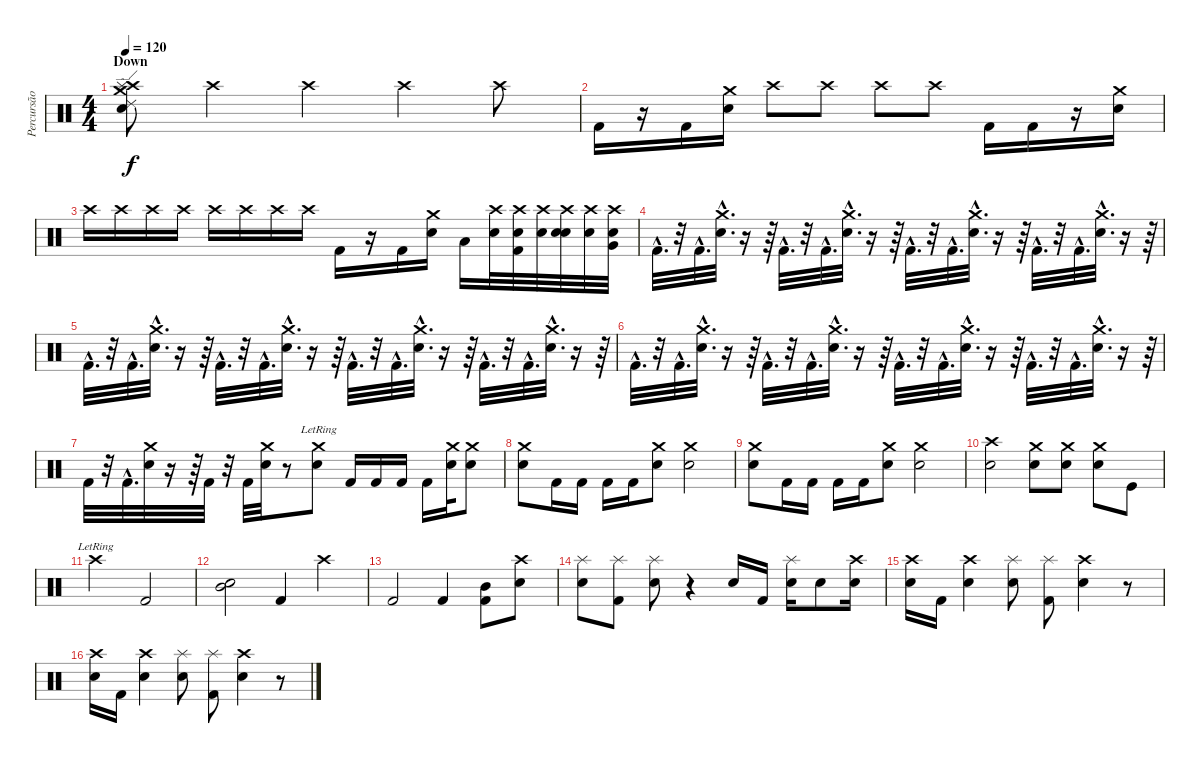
\track ("Percursão" "Percursão") {instrument percussion}
\staff {score}
\articulation defaults
\ts (4 4)
\section ("" "Down")
\tempo 120
\clef neutral
\ks c
("Crash high (hit)" "Crash medium (hit)" "Snare (hit) 2" "Ride (edge) 2" "Splash (hit)").8{dy f} "Crash high (hit)".4 "Crash high (hit)".4 "Crash high (hit)".4 "Crash high (hit)".8 |
"Kick (hit) 2".16 r.16 "Kick (hit) 2".16 ("Snare (hit) 2" "Crash medium (hit)").16 "Crash high (hit)".8 "Crash high (hit)".8 "Crash high (hit)".8 "Crash high (hit)".8 "Kick (hit) 2".16 "Kick (hit) 2".16 r.16 ("Snare (hit) 2" "Crash medium (hit)").16 |
"Crash high (hit)".16 "Crash high (hit)".16 "Crash high (hit)".16 "Crash high (hit)".16 "Crash high (hit)".16 "Crash high (hit)".16 "Crash high (hit)".16 "Crash high (hit)".16 "Kick (hit) 2".16 r.16 "Kick (hit) 2".16 ("Snare (hit) 2" "Crash medium (hit)").16 "Low Floor Tom (hit)".16 ("Snare (hit) 2" "Crash high (hit)").32 ("Kick (hit) 2" "Snare (hit) 2" "Crash high (hit)").32 ("Snare (hit) 2" "Crash high (hit)").32 ("Metronome (bell)" "Snare (hit) 2" "Crash high (hit)").32 ("Snare (hit) 2" "Crash high (hit)").32 ("Very Low Tom (hit)" "Snare (hit) 2" "Crash high (hit)").32 |
"Kick (hit) 2"{hac}.32{d} r.32 "Kick (hit) 2"{hac}.32{d} ("Crash medium (hit)"{hac} "Snare (hit) 2"{hac}).32{d} r.16 r.64 "Kick (hit) 2"{hac}.32{d} r.32 "Kick (hit) 2"{hac}.32{d} ("Crash medium (hit)"{hac} "Snare (hit) 2"{hac}).32{d} r.16 r.64 "Kick (hit) 2"{hac}.32{d} r.32 "Kick (hit) 2"{hac}.32{d} ("Crash medium (hit)"{hac} "Snare (hit) 2"{hac}).32{d} r.16 r.64 "Kick (hit) 2"{hac}.32{d} r.32 "Kick (hit) 2"{hac}.32{d} ("Crash medium (hit)"{hac} "Snare (hit) 2"{hac}).32{d} r.16 r.64 |
"Kick (hit) 2"{hac}.32{d} r.32 "Kick (hit) 2"{hac}.32{d} ("Crash medium (hit)"{hac} "Snare (hit) 2"{hac}).32{d} r.16 r.64 "Kick (hit) 2"{hac}.32{d} r.32 "Kick (hit) 2"{hac}.32{d} ("Crash medium (hit)"{hac} "Snare (hit) 2"{hac}).32{d} r.16 r.64 "Kick (hit) 2"{hac}.32{d} r.32 "Kick (hit) 2"{hac}.32{d} ("Crash medium (hit)"{hac} "Snare (hit) 2"{hac}).32{d} r.16 r.64 "Kick (hit) 2"{hac}.32{d} r.32 "Kick (hit) 2"{hac}.32{d} ("Crash medium (hit)"{hac} "Snare (hit) 2"{hac}).32{d} r.16 r.64 |
"Kick (hit) 2"{hac}.32{d} r.32 "Kick (hit) 2"{hac}.32{d} ("Crash medium (hit)"{hac} "Snare (hit) 2"{hac}).32{d} r.16 r.64 "Kick (hit) 2"{hac}.32{d} r.32 "Kick (hit) 2"{hac}.32{d} ("Crash medium (hit)"{hac} "Snare (hit) 2"{hac}).32{d} r.16 r.64 "Kick (hit) 2"{hac}.32{d} r.32 "Kick (hit) 2"{hac}.32{d} ("Crash medium (hit)"{hac} "Snare (hit) 2"{hac}).32{d} r.16 r.64 "Kick (hit) 2"{hac}.32{d} r.32 "Kick (hit) 2"{hac}.32{d} ("Crash medium (hit)"{hac} "Snare (hit) 2"{hac}).32{d} r.16 r.64 |
"Kick (hit) 2".32 r.32 "Kick (hit) 2"{hac}.32{d} ("Crash medium (hit)" "Snare (hit) 2").32 r.16 r.64 "Kick (hit) 2".32 r.32 "Kick (hit) 2".32 ("Crash medium (hit)" "Snare (hit) 2").32 r.8 ("Crash medium (hit)"{lr} "Snare (hit) 2").8 "Kick (hit) 2".16 "Kick (hit) 2".16 "Kick (hit) 2".16 "Kick (hit) 2".16 ("Crash medium (hit)" "Snare (hit) 2").32 ("Crash medium (hit)" "Snare (hit) 2").8 |
("Crash medium (hit)" "Snare (hit) 2").8 "Kick (hit) 2".16 "Kick (hit) 2".16 "Kick (hit) 2".16 "Kick (hit) 2".16 ("Crash medium (hit)" "Snare (hit) 2").8 ("Crash medium (hit)" "Snare (hit) 2").2 |
("Crash medium (hit)" "Snare (hit) 2").8 "Kick (hit) 2".16 "Kick (hit) 2".16 "Kick (hit) 2".16 "Kick (hit) 2".16 ("Crash medium (hit)" "Snare (hit) 2").8 ("Crash medium (hit)" "Snare (hit) 2").2 |
("Crash high (hit)" "Snare (hit) 2").2 ("Crash medium (hit)" "Snare (hit) 2").8 ("Crash medium (hit)" "Snare (hit) 2").8 ("Crash medium (hit)" "Snare (hit) 2").8 "Kick (hit)".8 |
"Crash high (hit)"{lr}.2 "Kick (hit) 2".2 |
("Snare (hit) 2" "Mid Tom (hit)").2 "Kick (hit) 2".4 "Crash high (hit)".4 |
"Kick (hit) 2".2 "Kick (hit) 2".4 ("Kick (hit) 2" "Mid Tom (hit)").8 ("Snare (hit) 2" "Crash high (hit)").8 |
("Splash (hit)" "Snare (hit) 2").8 ("Splash (hit)" "Kick (hit) 2").8 ("Splash (hit)" "Snare (hit) 2").8 r.4 "Snare (hit) 2".16 "Kick (hit) 2".16 ("Splash (hit)" "Snare (hit) 2").16 "Snare (hit) 2".8 ("Crash high (hit)" "Snare (hit) 2").16 |
("Crash high (hit)" "Snare (hit) 2").16 "Kick (hit) 2".16 ("Crash high (hit)" "Snare (hit) 2").4 ("Splash (hit)" "Snare (hit) 2").8 ("Splash (hit)" "Kick (hit) 2").8 ("Crash high (hit)" "Snare (hit) 2").4 r.8 |
("Crash high (hit)" "Snare (hit) 2").16 "Kick (hit) 2".16 ("Crash high (hit)" "Snare (hit) 2").4 ("Splash (hit)" "Snare (hit) 2").8 ("Splash (hit)" "Kick (hit) 2").8 ("Crash high (hit)" "Snare (hit) 2").4 r.8
